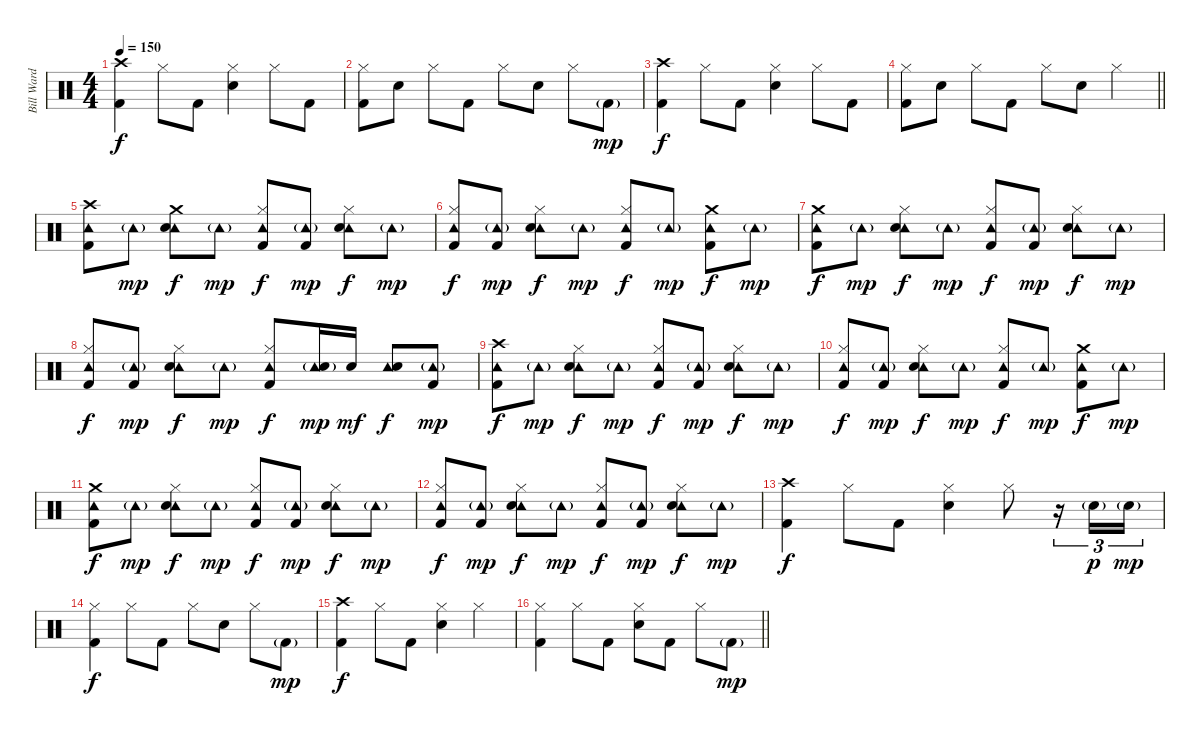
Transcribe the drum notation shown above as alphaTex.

\track ("Bill Ward" "Bill Ward") {instrument percussion}
\staff {score}
\articulation defaults
\ts (4 4)
\tempo 150
\clef neutral
\ks c
("Crash high (hit)" "Kick (hit) 2").4{dy f} "Hi-Hat (closed)".8 "Kick (hit) 2".8 ("Hi-Hat (closed)" "Electric Snare (hit)").4 "Hi-Hat (closed)".8 "Kick (hit) 2".8 |
("Hi-Hat (closed)" "Kick (hit) 2").8 "Electric Snare (hit)".8 "Hi-Hat (closed)".8 "Kick (hit) 2".8 "Hi-Hat (closed)".8 "Electric Snare (hit)".8 "Hi-Hat (closed)".8 "Kick (hit) 2"{g}.8{dy mp} |
("Crash high (hit)" "Kick (hit) 2").4{dy f} "Hi-Hat (closed)".8 "Kick (hit) 2".8 ("Hi-Hat (closed)" "Electric Snare (hit)").4 "Hi-Hat (closed)".8 "Kick (hit) 2".8 |
\barLineRight lightlight
("Hi-Hat (closed)" "Kick (hit) 2").8 "Electric Snare (hit)".8 "Hi-Hat (closed)".8 "Kick (hit) 2".8 "Hi-Hat (closed)".8 "Electric Snare (hit)".8 "Hi-Hat (closed)".4 |
\section ("" "")
("Crash high (hit)" "Tambourine (hit)" "Kick (hit) 2").8 "Tambourine (hit)"{g}.8{dy mp} ("Crash medium (hit)" "Tambourine (hit)" "Electric Snare (hit)").8{dy f} "Tambourine (hit)"{g}.8{dy mp} ("Hi-Hat (closed)" "Tambourine (hit)" "Kick (hit) 2").8{dy f} ("Tambourine (hit)"{g} "Kick (hit) 2").8{dy mp} ("Hi-Hat (closed)" "Tambourine (hit)" "Electric Snare (hit)").8{dy f} "Tambourine (hit)"{g}.8{dy mp} |
("Hi-Hat (closed)" "Tambourine (hit)" "Kick (hit) 2").8{dy f} ("Tambourine (hit)"{g} "Kick (hit) 2").8{dy mp} ("Hi-Hat (closed)" "Tambourine (hit)" "Electric Snare (hit)").8{dy f} "Tambourine (hit)"{g}.8{dy mp} ("Hi-Hat (closed)" "Tambourine (hit)" "Kick (hit) 2").8{dy f} "Tambourine (hit)"{g}.8{dy mp} ("Crash medium (hit)" "Tambourine (hit)" "Kick (hit) 2").8{dy f} "Tambourine (hit)"{g}.8{dy mp} |
("Crash medium (hit)" "Tambourine (hit)" "Kick (hit) 2").8{dy f} "Tambourine (hit)"{g}.8{dy mp} ("Hi-Hat (closed)" "Tambourine (hit)" "Electric Snare (hit)").8{dy f} "Tambourine (hit)"{g}.8{dy mp} ("Hi-Hat (closed)" "Tambourine (hit)" "Kick (hit) 2").8{dy f} ("Tambourine (hit)"{g} "Kick (hit) 2").8{dy mp} ("Hi-Hat (closed)" "Tambourine (hit)" "Electric Snare (hit)").8{dy f} "Tambourine (hit)"{g}.8{dy mp} |
("Hi-Hat (closed)" "Tambourine (hit)" "Kick (hit) 2").8{dy f} ("Tambourine (hit)"{g} "Kick (hit) 2").8{dy mp} ("Hi-Hat (closed)" "Tambourine (hit)" "Electric Snare (hit)").8{dy f} "Tambourine (hit)"{g}.8{dy mp} ("Hi-Hat (closed)" "Tambourine (hit)" "Kick (hit) 2").8{dy f} ("Tambourine (hit)"{g} "Electric Snare (hit)"{g}).16{dy mp} "Electric Snare (hit)".16{dy mf} ("Tambourine (hit)" "Electric Snare (hit)").8{dy f} ("Tambourine (hit)"{g} "Kick (hit) 2").8{dy mp} |
("Crash high (hit)" "Tambourine (hit)" "Kick (hit) 2").8{dy f} "Tambourine (hit)"{g}.8{dy mp} ("Hi-Hat (closed)" "Tambourine (hit)" "Electric Snare (hit)").8{dy f} "Tambourine (hit)"{g}.8{dy mp} ("Hi-Hat (closed)" "Tambourine (hit)" "Kick (hit) 2").8{dy f} ("Tambourine (hit)"{g} "Kick (hit) 2").8{dy mp} ("Hi-Hat (closed)" "Tambourine (hit)" "Electric Snare (hit)").8{dy f} "Tambourine (hit)"{g}.8{dy mp} |
("Hi-Hat (closed)" "Tambourine (hit)" "Kick (hit) 2").8{dy f} ("Tambourine (hit)"{g} "Kick (hit) 2").8{dy mp} ("Hi-Hat (closed)" "Tambourine (hit)" "Electric Snare (hit)").8{dy f} "Tambourine (hit)"{g}.8{dy mp} ("Hi-Hat (closed)" "Tambourine (hit)" "Kick (hit) 2").8{dy f} "Tambourine (hit)"{g}.8{dy mp} ("Crash medium (hit)" "Tambourine (hit)" "Kick (hit) 2").8{dy f} "Tambourine (hit)"{g}.8{dy mp} |
("Crash medium (hit)" "Tambourine (hit)" "Kick (hit) 2").8{dy f} "Tambourine (hit)"{g}.8{dy mp} ("Hi-Hat (closed)" "Tambourine (hit)" "Electric Snare (hit)").8{dy f} "Tambourine (hit)"{g}.8{dy mp} ("Hi-Hat (closed)" "Tambourine (hit)" "Kick (hit) 2").8{dy f} ("Tambourine (hit)"{g} "Kick (hit) 2").8{dy mp} ("Hi-Hat (closed)" "Tambourine (hit)" "Electric Snare (hit)").8{dy f} "Tambourine (hit)"{g}.8{dy mp} |
("Hi-Hat (closed)" "Tambourine (hit)" "Kick (hit) 2").8{dy f} ("Tambourine (hit)"{g} "Kick (hit) 2").8{dy mp} ("Hi-Hat (closed)" "Tambourine (hit)" "Electric Snare (hit)").8{dy f} "Tambourine (hit)"{g}.8{dy mp} ("Hi-Hat (closed)" "Tambourine (hit)" "Kick (hit) 2").8{dy f} ("Tambourine (hit)"{g} "Kick (hit) 2").8{dy mp} ("Hi-Hat (closed)" "Tambourine (hit)" "Electric Snare (hit)").8{dy f} "Tambourine (hit)"{g}.8{dy mp} |
("Crash high (hit)" "Kick (hit) 2").4{dy f} "Hi-Hat (closed)".8 "Kick (hit) 2".8 ("Hi-Hat (closed)" "Electric Snare (hit)").4 "Hi-Hat (closed)".8 r.16{tu (3 2)} "Electric Snare (hit)"{g}.16{tu (3 2) dy p} "Electric Snare (hit)"{g}.16{tu (3 2) dy mp} |
("Hi-Hat (closed)" "Kick (hit) 2").4{dy f} "Hi-Hat (closed)".8 "Kick (hit) 2".8 "Hi-Hat (closed)".8 "Electric Snare (hit)".8 "Hi-Hat (closed)".8 "Kick (hit) 2"{g}.8{dy mp} |
("Crash high (hit)" "Kick (hit) 2").4{dy f} "Hi-Hat (closed)".8 "Kick (hit) 2".8 ("Hi-Hat (closed)" "Electric Snare (hit)").4 "Hi-Hat (closed)".4 |
\barLineRight lightlight
("Hi-Hat (closed)" "Kick (hit) 2").4 "Hi-Hat (closed)".8 "Kick (hit) 2".8 ("Hi-Hat (closed)" "Electric Snare (hit)").8 "Kick (hit) 2".8 "Hi-Hat (closed)".8 "Kick (hit) 2"{g}.8{dy mp}
